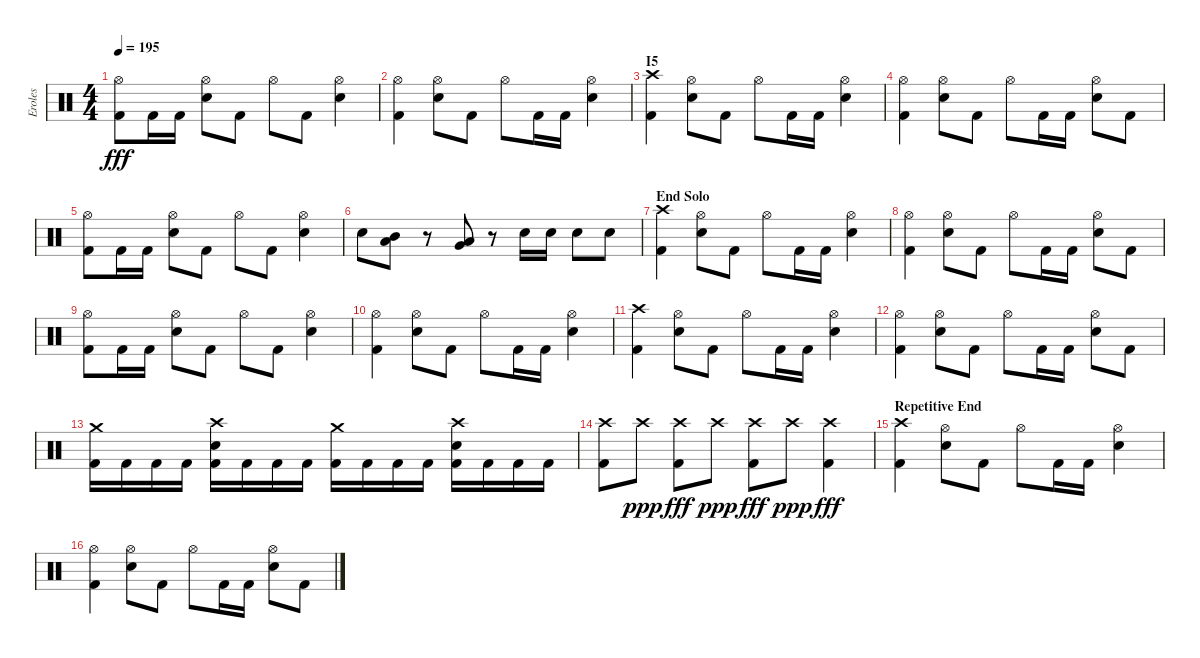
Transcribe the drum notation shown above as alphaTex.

\track ("Eroles" "Eroles") {instrument percussion}
\staff {score}
\articulation defaults
\ts (4 4)
\tempo 195
\clef neutral
\ks c
("Hi-Hat (open)" "Kick (hit) 2").8{dy fff} "Kick (hit) 2".16 "Kick (hit) 2".16 ("Hi-Hat (open)" "Snare (hit) 2").8 "Kick (hit) 2".8 "Hi-Hat (open)".8 "Kick (hit) 2".8 ("Hi-Hat (open)" "Snare (hit) 2").4 |
("Hi-Hat (open)" "Kick (hit) 2").4 ("Hi-Hat (open)" "Snare (hit) 2").8 "Kick (hit) 2".8 "Hi-Hat (open)".8 "Kick (hit) 2".16 "Kick (hit) 2".16 ("Hi-Hat (open)" "Snare (hit) 2").4 |
\section ("" "I5")
("Crash high (hit)" "Kick (hit) 2").4 ("Hi-Hat (open)" "Snare (hit) 2").8 "Kick (hit) 2".8 "Hi-Hat (open)".8 "Kick (hit) 2".16 "Kick (hit) 2".16 ("Hi-Hat (open)" "Snare (hit) 2").4 |
("Hi-Hat (open)" "Kick (hit) 2").4 ("Hi-Hat (open)" "Snare (hit) 2").8 "Kick (hit) 2".8 "Hi-Hat (open)".8 "Kick (hit) 2".16 "Kick (hit) 2".16 ("Hi-Hat (open)" "Snare (hit) 2").8 "Kick (hit) 2".8 |
("Hi-Hat (open)" "Kick (hit) 2").8 "Kick (hit) 2".16 "Kick (hit) 2".16 ("Hi-Hat (open)" "Snare (hit) 2").8 "Kick (hit) 2".8 "Hi-Hat (open)".8 "Kick (hit) 2".8 ("Hi-Hat (open)" "Snare (hit) 2").4 |
"Snare (hit) 2".8 ("Mid Tom (hit)" "Low Tom (hit)").8{bd 480} r.8 ("Low Tom (hit)" "Very Low Tom (hit)").8{bd 480} r.8 "Snare (hit) 2".16 "Snare (hit) 2".16 "Snare (hit) 2".8 "Snare (hit) 2".8 |
\section ("" "End Solo")
("Crash high (hit)" "Kick (hit) 2").4 ("Hi-Hat (open)" "Snare (hit) 2").8 "Kick (hit) 2".8 "Hi-Hat (open)".8 "Kick (hit) 2".16 "Kick (hit) 2".16 ("Hi-Hat (open)" "Snare (hit) 2").4 |
("Hi-Hat (open)" "Kick (hit) 2").4 ("Hi-Hat (open)" "Snare (hit) 2").8 "Kick (hit) 2".8 "Hi-Hat (open)".8 "Kick (hit) 2".16 "Kick (hit) 2".16 ("Hi-Hat (open)" "Snare (hit) 2").8 "Kick (hit) 2".8 |
("Hi-Hat (open)" "Kick (hit) 2").8 "Kick (hit) 2".16 "Kick (hit) 2".16 ("Hi-Hat (open)" "Snare (hit) 2").8 "Kick (hit) 2".8 "Hi-Hat (open)".8 "Kick (hit) 2".8 ("Hi-Hat (open)" "Snare (hit) 2").4 |
("Hi-Hat (open)" "Kick (hit) 2").4 ("Hi-Hat (open)" "Snare (hit) 2").8 "Kick (hit) 2".8 "Hi-Hat (open)".8 "Kick (hit) 2".16 "Kick (hit) 2".16 ("Hi-Hat (open)" "Snare (hit) 2").4 |
("Crash high (hit)" "Kick (hit) 2").4 ("Hi-Hat (open)" "Snare (hit) 2").8 "Kick (hit) 2".8 "Hi-Hat (open)".8 "Kick (hit) 2".16 "Kick (hit) 2".16 ("Hi-Hat (open)" "Snare (hit) 2").4 |
("Hi-Hat (open)" "Kick (hit) 2").4 ("Hi-Hat (open)" "Snare (hit) 2").8 "Kick (hit) 2".8 "Hi-Hat (open)".8 "Kick (hit) 2".16 "Kick (hit) 2".16 ("Hi-Hat (open)" "Snare (hit) 2").8 "Kick (hit) 2".8 |
("Crash medium (hit)" "Kick (hit) 2").16 "Kick (hit) 2".16 "Kick (hit) 2".16 "Kick (hit) 2".16 ("Crash high (hit)" "Snare (hit) 2" "Kick (hit) 2").16 "Kick (hit) 2".16 "Kick (hit) 2".16 "Kick (hit) 2".16 ("Crash medium (hit)" "Kick (hit) 2").16 "Kick (hit) 2".16 "Kick (hit) 2".16 "Kick (hit) 2".16 ("Crash high (hit)" "Snare (hit) 2" "Kick (hit) 2").16 "Kick (hit) 2".16 "Kick (hit) 2".16 "Kick (hit) 2".16 |
("Crash high (hit)" "Kick (hit) 2").8 "Crash high (hit)".8{dy ppp} ("Crash high (hit)" "Kick (hit) 2").8{dy fff} "Crash high (hit)".8{dy ppp} ("Crash high (hit)" "Kick (hit) 2").8{dy fff} "Crash high (hit)".8{dy ppp} ("Crash high (hit)" "Kick (hit) 2").4{dy fff} |
\section ("" "Repetitive End")
("Crash high (hit)" "Kick (hit) 2").4 ("Hi-Hat (open)" "Snare (hit) 2").8 "Kick (hit) 2".8 "Hi-Hat (open)".8 "Kick (hit) 2".16 "Kick (hit) 2".16 ("Hi-Hat (open)" "Snare (hit) 2").4 |
("Hi-Hat (open)" "Kick (hit) 2").4 ("Hi-Hat (open)" "Snare (hit) 2").8 "Kick (hit) 2".8 "Hi-Hat (open)".8 "Kick (hit) 2".16 "Kick (hit) 2".16 ("Hi-Hat (open)" "Snare (hit) 2").8 "Kick (hit) 2".8
